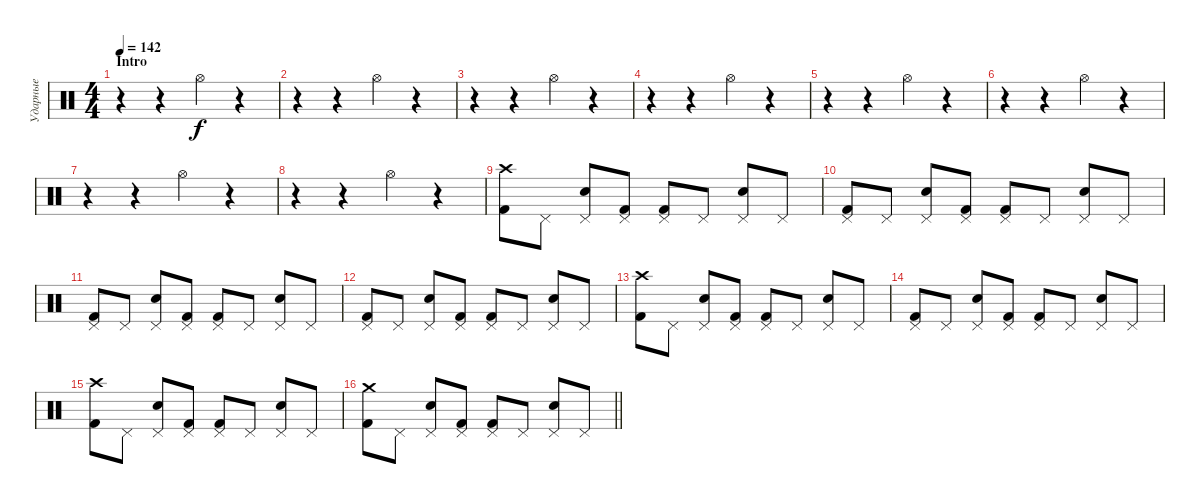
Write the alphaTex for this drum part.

\track ("Ударные" "Ударные") {instrument percussion}
\staff {score}
\articulation defaults
\ts (4 4)
\section ("" "Intro")
\tempo 142
\clef neutral
\ks c
r.4{dy f} r.4 "Hi-Hat (open)".4 r.4 |
r.4 r.4 "Hi-Hat (open)".4 r.4 |
r.4 r.4 "Hi-Hat (open)".4 r.4 |
r.4 r.4 "Hi-Hat (open)".4 r.4 |
r.4 r.4 "Hi-Hat (open)".4 r.4 |
r.4 r.4 "Hi-Hat (open)".4 r.4 |
r.4 r.4 "Hi-Hat (open)".4 r.4 |
r.4 r.4 "Hi-Hat (open)".4 r.4 |
("Crash high (hit)" "Kick (hit) 2").8 "Pedal Hi-Hat (hit)".8 ("Pedal Hi-Hat (hit)" "Snare (hit) 2").8 ("Pedal Hi-Hat (hit)" "Kick (hit) 2").8 ("Pedal Hi-Hat (hit)" "Kick (hit) 2").8 "Pedal Hi-Hat (hit)".8 ("Pedal Hi-Hat (hit)" "Snare (hit) 2").8 "Pedal Hi-Hat (hit)".8 |
("Pedal Hi-Hat (hit)" "Kick (hit) 2").8 "Pedal Hi-Hat (hit)".8 ("Pedal Hi-Hat (hit)" "Snare (hit) 2").8 ("Pedal Hi-Hat (hit)" "Kick (hit) 2").8 ("Pedal Hi-Hat (hit)" "Kick (hit) 2").8 "Pedal Hi-Hat (hit)".8 ("Pedal Hi-Hat (hit)" "Snare (hit) 2").8 "Pedal Hi-Hat (hit)".8 |
("Pedal Hi-Hat (hit)" "Kick (hit) 2").8 "Pedal Hi-Hat (hit)".8 ("Pedal Hi-Hat (hit)" "Snare (hit) 2").8 ("Pedal Hi-Hat (hit)" "Kick (hit) 2").8 ("Pedal Hi-Hat (hit)" "Kick (hit) 2").8 "Pedal Hi-Hat (hit)".8 ("Pedal Hi-Hat (hit)" "Snare (hit) 2").8 "Pedal Hi-Hat (hit)".8 |
("Pedal Hi-Hat (hit)" "Kick (hit) 2").8 "Pedal Hi-Hat (hit)".8 ("Pedal Hi-Hat (hit)" "Snare (hit) 2").8 ("Pedal Hi-Hat (hit)" "Kick (hit) 2").8 ("Pedal Hi-Hat (hit)" "Kick (hit) 2").8 "Pedal Hi-Hat (hit)".8 ("Pedal Hi-Hat (hit)" "Snare (hit) 2").8 "Pedal Hi-Hat (hit)".8 |
("Crash high (hit)" "Kick (hit) 2").8 "Pedal Hi-Hat (hit)".8 ("Pedal Hi-Hat (hit)" "Snare (hit) 2").8 ("Pedal Hi-Hat (hit)" "Kick (hit) 2").8 ("Pedal Hi-Hat (hit)" "Kick (hit) 2").8 "Pedal Hi-Hat (hit)".8 ("Pedal Hi-Hat (hit)" "Snare (hit) 2").8 "Pedal Hi-Hat (hit)".8 |
("Pedal Hi-Hat (hit)" "Kick (hit) 2").8 "Pedal Hi-Hat (hit)".8 ("Pedal Hi-Hat (hit)" "Snare (hit) 2").8 ("Pedal Hi-Hat (hit)" "Kick (hit) 2").8 ("Pedal Hi-Hat (hit)" "Kick (hit) 2").8 "Pedal Hi-Hat (hit)".8 ("Pedal Hi-Hat (hit)" "Snare (hit) 2").8 "Pedal Hi-Hat (hit)".8 |
("Crash high (hit)" "Kick (hit) 2").8 "Pedal Hi-Hat (hit)".8 ("Pedal Hi-Hat (hit)" "Snare (hit) 2").8 ("Pedal Hi-Hat (hit)" "Kick (hit) 2").8 ("Pedal Hi-Hat (hit)" "Kick (hit) 2").8 "Pedal Hi-Hat (hit)".8 ("Pedal Hi-Hat (hit)" "Snare (hit) 2").8 "Pedal Hi-Hat (hit)".8 |
\barLineRight lightlight
("Crash medium (hit)" "Kick (hit) 2").8 "Pedal Hi-Hat (hit)".8 ("Pedal Hi-Hat (hit)" "Snare (hit) 2").8 ("Pedal Hi-Hat (hit)" "Kick (hit) 2").8 ("Pedal Hi-Hat (hit)" "Kick (hit) 2").8 "Pedal Hi-Hat (hit)".8 ("Pedal Hi-Hat (hit)" "Snare (hit) 2").8 "Pedal Hi-Hat (hit)".8
